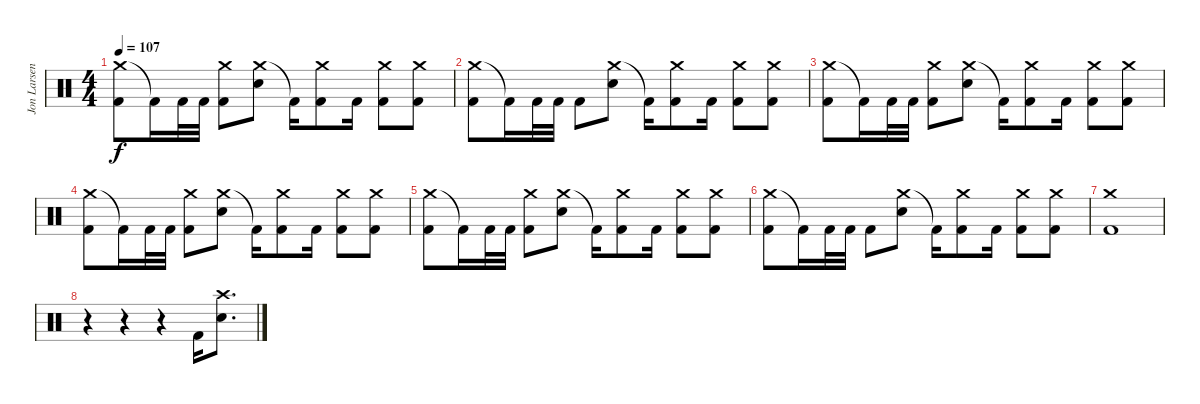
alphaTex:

\track ("Jon Larsen (Drums)" "Jon Larsen") {instrument percussion}
\staff {score}
\articulation defaults
\ts (4 4)
\tempo 107
\clef neutral
\ks c
("Crash medium (hit)" "Kick (hit) 2").8{dy f} "Kick (hit) 2"{t}.16 "Kick (hit) 2".32 "Kick (hit) 2".32 ("Crash medium (hit)" "Kick (hit) 2").8 ("Crash medium (hit)" "Electric Snare (hit)").8 "Kick (hit) 2"{t}.16 ("Crash medium (hit)" "Kick (hit) 2").8 "Kick (hit) 2".16 ("Crash medium (hit)" "Kick (hit) 2").8 ("Crash medium (hit)" "Kick (hit) 2").8 |
("Crash medium (hit)" "Kick (hit) 2").8 "Kick (hit) 2"{t}.16 "Kick (hit) 2".32 "Kick (hit) 2".32 "Kick (hit) 2".8 ("Crash medium (hit)" "Electric Snare (hit)").8 "Kick (hit) 2"{t}.16 ("Crash medium (hit)" "Kick (hit) 2").8 "Kick (hit) 2".16 ("Crash medium (hit)" "Kick (hit) 2").8 ("Crash medium (hit)" "Kick (hit) 2").8 |
("Crash medium (hit)" "Kick (hit) 2").8 "Kick (hit) 2"{t}.16 "Kick (hit) 2".32 "Kick (hit) 2".32 ("Crash medium (hit)" "Kick (hit) 2").8 ("Crash medium (hit)" "Electric Snare (hit)").8 "Kick (hit) 2"{t}.16 ("Crash medium (hit)" "Kick (hit) 2").8 "Kick (hit) 2".16 ("Crash medium (hit)" "Kick (hit) 2").8 ("Crash medium (hit)" "Kick (hit) 2").8 |
("Crash medium (hit)" "Kick (hit) 2").8 "Kick (hit) 2"{t}.16 "Kick (hit) 2".32 "Kick (hit) 2".32 ("Crash medium (hit)" "Kick (hit) 2").8 ("Crash medium (hit)" "Electric Snare (hit)").8 "Kick (hit) 2"{t}.16 ("Crash medium (hit)" "Kick (hit) 2").8 "Kick (hit) 2".16 ("Crash medium (hit)" "Kick (hit) 2").8 ("Crash medium (hit)" "Kick (hit) 2").8 |
("Crash medium (hit)" "Kick (hit) 2").8 "Kick (hit) 2"{t}.16 "Kick (hit) 2".32 "Kick (hit) 2".32 ("Crash medium (hit)" "Kick (hit) 2").8 ("Crash medium (hit)" "Electric Snare (hit)").8 "Kick (hit) 2"{t}.16 ("Crash medium (hit)" "Kick (hit) 2").8 "Kick (hit) 2".16 ("Crash medium (hit)" "Kick (hit) 2").8 ("Crash medium (hit)" "Kick (hit) 2").8 |
("Crash medium (hit)" "Kick (hit) 2").8 "Kick (hit) 2"{t}.16 "Kick (hit) 2".32 "Kick (hit) 2".32 "Kick (hit) 2".8 ("Crash medium (hit)" "Electric Snare (hit)").8 "Kick (hit) 2"{t}.16 ("Crash medium (hit)" "Kick (hit) 2").8 "Kick (hit) 2".16 ("Crash medium (hit)" "Kick (hit) 2").8 ("Crash medium (hit)" "Kick (hit) 2").8 |
("Crash medium (hit)" "Kick (hit) 2").1 |
r.4 r.4 r.4 "Kick (hit) 2".16 ("Crash high (hit)" "Electric Snare (hit)").8{d}
